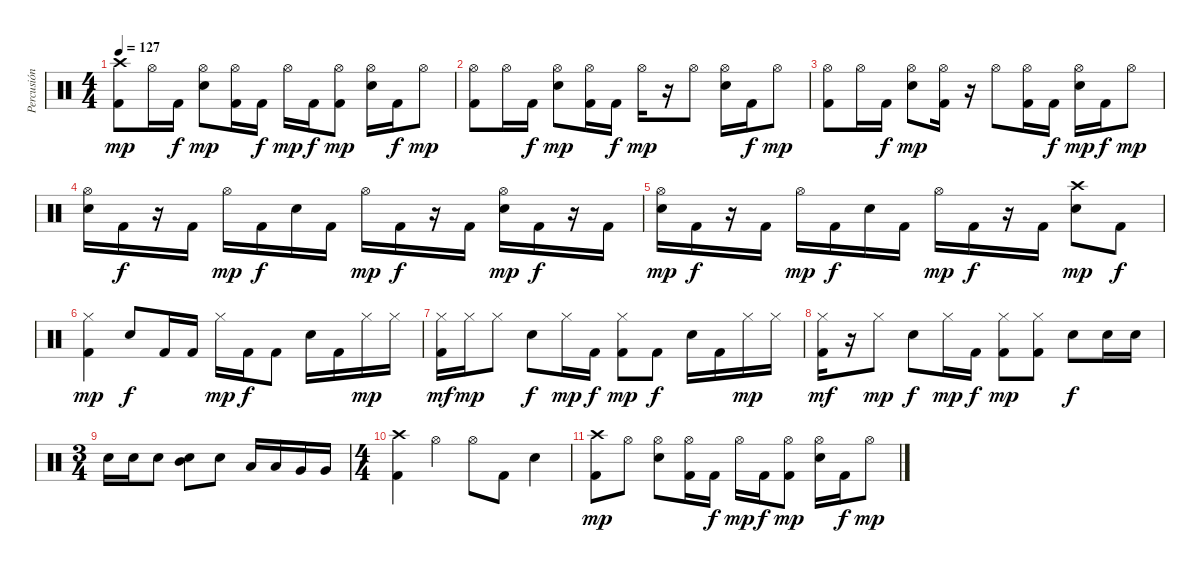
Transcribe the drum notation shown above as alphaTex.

\track ("Percusión" "Percusión") {instrument percussion}
\staff {score}
\articulation defaults
\ts (4 4)
\tempo 127
\clef neutral
\ks c
("Crash high (hit)" "Kick (hit) 2").8{dy mp} "Hi-Hat (open)".16 "Kick (hit) 2".16{dy f} ("Hi-Hat (open)" "Electric Snare (hit)").8{dy mp} ("Hi-Hat (open)" "Kick (hit) 2").16 "Kick (hit) 2".16{dy f} "Hi-Hat (open)".16{dy mp} "Kick (hit) 2".16{dy f} ("Hi-Hat (open)" "Kick (hit) 2").8{dy mp} ("Hi-Hat (open)" "Electric Snare (hit)").16 "Kick (hit) 2".16{dy f} "Hi-Hat (open)".8{dy mp} |
("Hi-Hat (open)" "Kick (hit) 2").8 "Hi-Hat (open)".16 "Kick (hit) 2".16{dy f} ("Hi-Hat (open)" "Electric Snare (hit)").8{dy mp} ("Hi-Hat (open)" "Kick (hit) 2").16 "Kick (hit) 2".16{dy f} "Hi-Hat (open)".16{dy mp} r.16 "Hi-Hat (open)".8 ("Hi-Hat (open)" "Electric Snare (hit)").16 "Kick (hit) 2".16{dy f} "Hi-Hat (open)".8{dy mp} |
("Hi-Hat (open)" "Kick (hit) 2").8 "Hi-Hat (open)".16 "Kick (hit) 2".16{dy f} ("Hi-Hat (open)" "Electric Snare (hit)").8{dy mp} ("Hi-Hat (open)" "Kick (hit) 2").16 r.16 "Hi-Hat (open)".8 ("Hi-Hat (open)" "Kick (hit) 2").16 "Kick (hit) 2".16{dy f} ("Hi-Hat (open)" "Electric Snare (hit)").16{dy mp} "Kick (hit) 2".16{dy f} "Hi-Hat (open)".8{dy mp} |
("Hi-Hat (open)" "Electric Snare (hit)").16 "Kick (hit) 2".16{dy f} r.16 "Kick (hit) 2".16 "Hi-Hat (open)".16{dy mp} "Kick (hit) 2".16{dy f} "Electric Snare (hit)".16 "Kick (hit) 2".16 "Hi-Hat (open)".16{dy mp} "Kick (hit) 2".16{dy f} r.16 "Kick (hit) 2".16 ("Hi-Hat (open)" "Electric Snare (hit)").16{dy mp} "Kick (hit) 2".16{dy f} r.16 "Kick (hit) 2".16 |
("Hi-Hat (open)" "Electric Snare (hit)").16{dy mp} "Kick (hit) 2".16{dy f} r.16 "Kick (hit) 2".16 "Hi-Hat (open)".16{dy mp} "Kick (hit) 2".16{dy f} "Electric Snare (hit)".16 "Kick (hit) 2".16 "Hi-Hat (open)".16{dy mp} "Kick (hit) 2".16{dy f} r.16 "Kick (hit) 2".16 ("Crash high (hit)" "Electric Snare (hit)").8{dy mp} "Kick (hit) 2".8{dy f} |
("Hi-Hat (closed)" "Kick (hit) 2").4{dy mp} "Electric Snare (hit)".8{dy f} "Kick (hit) 2".16 "Kick (hit) 2".16 "Hi-Hat (closed)".16{dy mp} "Kick (hit) 2".16{dy f} "Kick (hit) 2".8 "Electric Snare (hit)".16 "Kick (hit) 2".16 "Hi-Hat (closed)".16{dy mp} "Hi-Hat (closed)".16 |
("Hi-Hat (closed)" "Kick (hit) 2").16{dy mf} "Hi-Hat (closed)".16{dy mp} "Hi-Hat (closed)".8 "Electric Snare (hit)".8{dy f} "Hi-Hat (closed)".16{dy mp} "Kick (hit) 2".16{dy f} ("Hi-Hat (closed)" "Kick (hit) 2").8{dy mp} "Kick (hit) 2".8{dy f} "Electric Snare (hit)".16 "Kick (hit) 2".16 "Hi-Hat (closed)".16{dy mp} "Hi-Hat (closed)".16 |
("Hi-Hat (closed)" "Kick (hit) 2").16{dy mf} r.16 "Hi-Hat (closed)".8{dy mp} "Electric Snare (hit)".8{dy f} "Hi-Hat (closed)".16{dy mp} "Kick (hit) 2".16{dy f} ("Hi-Hat (closed)" "Kick (hit) 2").8{dy mp} ("Hi-Hat (closed)" "Kick (hit) 2").8 "Electric Snare (hit)".8{dy f} "Electric Snare (hit)".16 "Electric Snare (hit)".16 |
\ts (3 4)
"Electric Snare (hit)".16 "Electric Snare (hit)".16 "Electric Snare (hit)".8 ("Mid Tom (hit)" "Electric Snare (hit)").8 "Electric Snare (hit)".8 "Low Tom (hit)".16 "Low Tom (hit)".16 "Very Low Tom (hit)".16 "Very Low Tom (hit)".16 |
\ts (4 4)
("Crash high (hit)" "Kick (hit) 2").4 "Hi-Hat (open)".4 "Hi-Hat (open)".8 "Kick (hit) 2".8 "Electric Snare (hit)".4 |
("Crash high (hit)" "Kick (hit) 2").8{dy mp} "Hi-Hat (open)".8 ("Hi-Hat (open)" "Electric Snare (hit)").8 ("Hi-Hat (open)" "Kick (hit) 2").16 "Kick (hit) 2".16{dy f} "Hi-Hat (open)".16{dy mp} "Kick (hit) 2".16{dy f} ("Hi-Hat (open)" "Kick (hit) 2").8{dy mp} ("Hi-Hat (open)" "Electric Snare (hit)").16 "Kick (hit) 2".16{dy f} "Hi-Hat (open)".8{dy mp}
